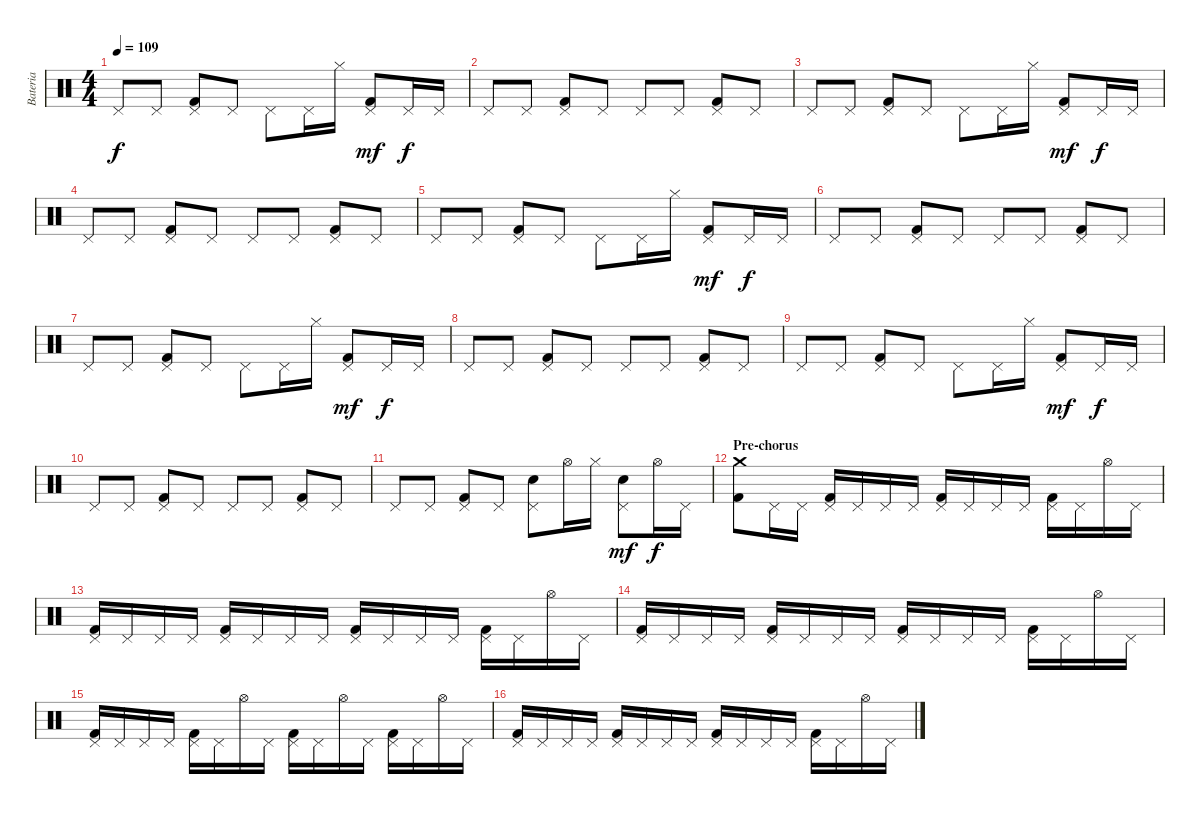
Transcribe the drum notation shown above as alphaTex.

\track ("Bateria" "Bateria") {instrument percussion}
\staff {score}
\articulation defaults
\ts (4 4)
\tempo 109
\clef neutral
\ks c "Pedal Hi-Hat (hit)".8{dy f} "Pedal Hi-Hat (hit)".8
("Pedal Hi-Hat (hit)" "Kick (hit) 2").8 "Pedal Hi-Hat (hit)".8 "Pedal Hi-Hat (hit)".8 "Pedal Hi-Hat (hit)".16 "Hi-Hat (closed)".16 ("Pedal Hi-Hat (hit)" "Kick (hit) 2").8{dy mf} "Pedal Hi-Hat (hit)".16{dy f} "Pedal Hi-Hat (hit)".16 |
"Pedal Hi-Hat (hit)".8 "Pedal Hi-Hat (hit)".8 ("Pedal Hi-Hat (hit)" "Kick (hit) 2").8 "Pedal Hi-Hat (hit)".8 "Pedal Hi-Hat (hit)".8 "Pedal Hi-Hat (hit)".8 ("Pedal Hi-Hat (hit)" "Kick (hit) 2").8 "Pedal Hi-Hat (hit)".8 |
"Pedal Hi-Hat (hit)".8 "Pedal Hi-Hat (hit)".8 ("Pedal Hi-Hat (hit)" "Kick (hit) 2").8 "Pedal Hi-Hat (hit)".8 "Pedal Hi-Hat (hit)".8 "Pedal Hi-Hat (hit)".16 "Hi-Hat (closed)".16 ("Pedal Hi-Hat (hit)" "Kick (hit) 2").8{dy mf} "Pedal Hi-Hat (hit)".16{dy f} "Pedal Hi-Hat (hit)".16 |
"Pedal Hi-Hat (hit)".8 "Pedal Hi-Hat (hit)".8 ("Pedal Hi-Hat (hit)" "Kick (hit) 2").8 "Pedal Hi-Hat (hit)".8 "Pedal Hi-Hat (hit)".8 "Pedal Hi-Hat (hit)".8 ("Pedal Hi-Hat (hit)" "Kick (hit) 2").8 "Pedal Hi-Hat (hit)".8 |
"Pedal Hi-Hat (hit)".8 "Pedal Hi-Hat (hit)".8 ("Pedal Hi-Hat (hit)" "Kick (hit) 2").8 "Pedal Hi-Hat (hit)".8 "Pedal Hi-Hat (hit)".8 "Pedal Hi-Hat (hit)".16 "Hi-Hat (closed)".16 ("Pedal Hi-Hat (hit)" "Kick (hit) 2").8{dy mf} "Pedal Hi-Hat (hit)".16{dy f} "Pedal Hi-Hat (hit)".16 |
"Pedal Hi-Hat (hit)".8 "Pedal Hi-Hat (hit)".8 ("Pedal Hi-Hat (hit)" "Kick (hit) 2").8 "Pedal Hi-Hat (hit)".8 "Pedal Hi-Hat (hit)".8 "Pedal Hi-Hat (hit)".8 ("Pedal Hi-Hat (hit)" "Kick (hit) 2").8 "Pedal Hi-Hat (hit)".8 |
"Pedal Hi-Hat (hit)".8 "Pedal Hi-Hat (hit)".8 ("Pedal Hi-Hat (hit)" "Kick (hit) 2").8 "Pedal Hi-Hat (hit)".8 "Pedal Hi-Hat (hit)".8 "Pedal Hi-Hat (hit)".16 "Hi-Hat (closed)".16 ("Pedal Hi-Hat (hit)" "Kick (hit) 2").8{dy mf} "Pedal Hi-Hat (hit)".16{dy f} "Pedal Hi-Hat (hit)".16 |
"Pedal Hi-Hat (hit)".8 "Pedal Hi-Hat (hit)".8 ("Pedal Hi-Hat (hit)" "Kick (hit) 2").8 "Pedal Hi-Hat (hit)".8 "Pedal Hi-Hat (hit)".8 "Pedal Hi-Hat (hit)".8 ("Pedal Hi-Hat (hit)" "Kick (hit) 2").8 "Pedal Hi-Hat (hit)".8 |
"Pedal Hi-Hat (hit)".8 "Pedal Hi-Hat (hit)".8 ("Pedal Hi-Hat (hit)" "Kick (hit) 2").8 "Pedal Hi-Hat (hit)".8 "Pedal Hi-Hat (hit)".8 "Pedal Hi-Hat (hit)".16 "Hi-Hat (closed)".16 ("Pedal Hi-Hat (hit)" "Kick (hit) 2").8{dy mf} "Pedal Hi-Hat (hit)".16{dy f} "Pedal Hi-Hat (hit)".16 |
"Pedal Hi-Hat (hit)".8 "Pedal Hi-Hat (hit)".8 ("Pedal Hi-Hat (hit)" "Kick (hit) 2").8 "Pedal Hi-Hat (hit)".8 "Pedal Hi-Hat (hit)".8 "Pedal Hi-Hat (hit)".8 ("Pedal Hi-Hat (hit)" "Kick (hit) 2").8 "Pedal Hi-Hat (hit)".8 |
"Pedal Hi-Hat (hit)".8 "Pedal Hi-Hat (hit)".8 ("Pedal Hi-Hat (hit)" "Kick (hit) 2").8 "Pedal Hi-Hat (hit)".8 ("Pedal Hi-Hat (hit)" "Electric Snare (hit)").8 "Hi-Hat (open)".16 "Hi-Hat (closed)".16 ("Pedal Hi-Hat (hit)" "Electric Snare (hit)").8{dy mf} "Hi-Hat (open)".16{dy f} "Pedal Hi-Hat (hit)".16 |
\section ("" "Pre-chorus")
("Crash medium (hit)" "Kick (hit) 2").8 "Pedal Hi-Hat (hit)".16 "Pedal Hi-Hat (hit)".16 ("Pedal Hi-Hat (hit)" "Kick (hit) 2").16 "Pedal Hi-Hat (hit)".16 "Pedal Hi-Hat (hit)".16 "Pedal Hi-Hat (hit)".16 ("Pedal Hi-Hat (hit)" "Kick (hit) 2").16 "Pedal Hi-Hat (hit)".16 "Pedal Hi-Hat (hit)".16 "Pedal Hi-Hat (hit)".16 ("Pedal Hi-Hat (hit)" "Kick (hit) 2").16 "Pedal Hi-Hat (hit)".16 "Hi-Hat (open)".16 "Pedal Hi-Hat (hit)".16 |
("Pedal Hi-Hat (hit)" "Kick (hit) 2").16 "Pedal Hi-Hat (hit)".16 "Pedal Hi-Hat (hit)".16 "Pedal Hi-Hat (hit)".16 ("Pedal Hi-Hat (hit)" "Kick (hit) 2").16 "Pedal Hi-Hat (hit)".16 "Pedal Hi-Hat (hit)".16 "Pedal Hi-Hat (hit)".16 ("Pedal Hi-Hat (hit)" "Kick (hit) 2").16 "Pedal Hi-Hat (hit)".16 "Pedal Hi-Hat (hit)".16 "Pedal Hi-Hat (hit)".16 ("Pedal Hi-Hat (hit)" "Kick (hit) 2").16 "Pedal Hi-Hat (hit)".16 "Hi-Hat (open)".16 "Pedal Hi-Hat (hit)".16 |
("Pedal Hi-Hat (hit)" "Kick (hit) 2").16 "Pedal Hi-Hat (hit)".16 "Pedal Hi-Hat (hit)".16 "Pedal Hi-Hat (hit)".16 ("Pedal Hi-Hat (hit)" "Kick (hit) 2").16 "Pedal Hi-Hat (hit)".16 "Pedal Hi-Hat (hit)".16 "Pedal Hi-Hat (hit)".16 ("Pedal Hi-Hat (hit)" "Kick (hit) 2").16 "Pedal Hi-Hat (hit)".16 "Pedal Hi-Hat (hit)".16 "Pedal Hi-Hat (hit)".16 ("Pedal Hi-Hat (hit)" "Kick (hit) 2").16 "Pedal Hi-Hat (hit)".16 "Hi-Hat (open)".16 "Pedal Hi-Hat (hit)".16 |
("Pedal Hi-Hat (hit)" "Kick (hit) 2").16 "Pedal Hi-Hat (hit)".16 "Pedal Hi-Hat (hit)".16 "Pedal Hi-Hat (hit)".16 ("Pedal Hi-Hat (hit)" "Kick (hit) 2").16 "Pedal Hi-Hat (hit)".16 "Hi-Hat (open)".16 "Pedal Hi-Hat (hit)".16 ("Pedal Hi-Hat (hit)" "Kick (hit) 2").16 "Pedal Hi-Hat (hit)".16 "Hi-Hat (open)".16 "Pedal Hi-Hat (hit)".16 ("Pedal Hi-Hat (hit)" "Kick (hit) 2").16 "Pedal Hi-Hat (hit)".16 "Hi-Hat (open)".16 "Pedal Hi-Hat (hit)".16 |
("Pedal Hi-Hat (hit)" "Kick (hit) 2").16 "Pedal Hi-Hat (hit)".16 "Pedal Hi-Hat (hit)".16 "Pedal Hi-Hat (hit)".16 ("Pedal Hi-Hat (hit)" "Kick (hit) 2").16 "Pedal Hi-Hat (hit)".16 "Pedal Hi-Hat (hit)".16 "Pedal Hi-Hat (hit)".16 ("Pedal Hi-Hat (hit)" "Kick (hit) 2").16 "Pedal Hi-Hat (hit)".16 "Pedal Hi-Hat (hit)".16 "Pedal Hi-Hat (hit)".16 ("Pedal Hi-Hat (hit)" "Kick (hit) 2").16 "Pedal Hi-Hat (hit)".16 "Hi-Hat (open)".16 "Pedal Hi-Hat (hit)".16
